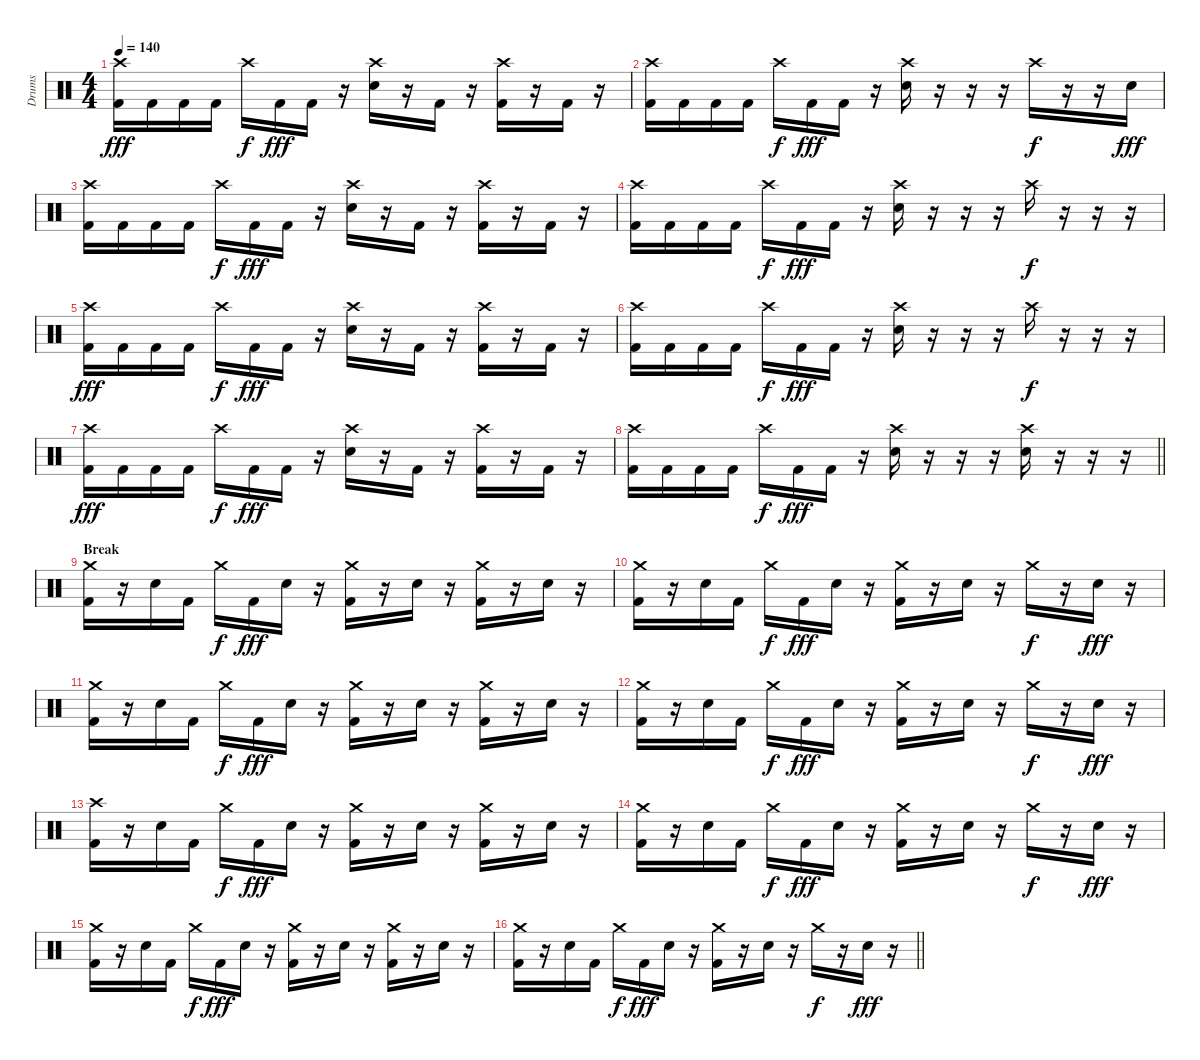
\track ("Drums" "Drums") {instrument percussion}
\staff {score}
\articulation defaults
\ts (4 4)
\tempo 140
\clef neutral
\ks c
("Crash high (hit)" "Kick (hit) 2").16{dy fff} "Kick (hit) 2".16 "Kick (hit) 2".16 "Kick (hit) 2".16 "Crash high (hit)".16{dy f} "Kick (hit) 2".16{dy fff} "Kick (hit) 2".16 r.16 ("Crash high (hit)" "Electric Snare (hit)").16 r.16 "Kick (hit) 2".16 r.16 ("Crash high (hit)" "Kick (hit) 2").16 r.16 "Kick (hit) 2".16 r.16 |
("Crash high (hit)" "Kick (hit) 2").16 "Kick (hit) 2".16 "Kick (hit) 2".16 "Kick (hit) 2".16 "Crash high (hit)".16{dy f} "Kick (hit) 2".16{dy fff} "Kick (hit) 2".16 r.16 ("Crash high (hit)" "Electric Snare (hit)").16 r.16 r.16 r.16 "Crash high (hit)".16{dy f} r.16 r.16 "Electric Snare (hit)".16{dy fff} |
("Crash high (hit)" "Kick (hit) 2").16 "Kick (hit) 2".16 "Kick (hit) 2".16 "Kick (hit) 2".16 "Crash high (hit)".16{dy f} "Kick (hit) 2".16{dy fff} "Kick (hit) 2".16 r.16 ("Crash high (hit)" "Electric Snare (hit)").16 r.16 "Kick (hit) 2".16 r.16 ("Crash high (hit)" "Kick (hit) 2").16 r.16 "Kick (hit) 2".16 r.16 |
("Crash high (hit)" "Kick (hit) 2").16 "Kick (hit) 2".16 "Kick (hit) 2".16 "Kick (hit) 2".16 "Crash high (hit)".16{dy f} "Kick (hit) 2".16{dy fff} "Kick (hit) 2".16 r.16 ("Crash high (hit)" "Electric Snare (hit)").16 r.16 r.16 r.16 "Crash high (hit)".16{dy f} r.16 r.16 r.16 |
("Crash high (hit)" "Kick (hit) 2").16{dy fff} "Kick (hit) 2".16 "Kick (hit) 2".16 "Kick (hit) 2".16 "Crash high (hit)".16{dy f} "Kick (hit) 2".16{dy fff} "Kick (hit) 2".16 r.16 ("Crash high (hit)" "Electric Snare (hit)").16 r.16 "Kick (hit) 2".16 r.16 ("Crash high (hit)" "Kick (hit) 2").16 r.16 "Kick (hit) 2".16 r.16 |
("Crash high (hit)" "Kick (hit) 2").16 "Kick (hit) 2".16 "Kick (hit) 2".16 "Kick (hit) 2".16 "Crash high (hit)".16{dy f} "Kick (hit) 2".16{dy fff} "Kick (hit) 2".16 r.16 ("Crash high (hit)" "Electric Snare (hit)").16 r.16 r.16 r.16 "Crash high (hit)".16{dy f} r.16 r.16 r.16 |
("Crash high (hit)" "Kick (hit) 2").16{dy fff} "Kick (hit) 2".16 "Kick (hit) 2".16 "Kick (hit) 2".16 "Crash high (hit)".16{dy f} "Kick (hit) 2".16{dy fff} "Kick (hit) 2".16 r.16 ("Crash high (hit)" "Electric Snare (hit)").16 r.16 "Kick (hit) 2".16 r.16 ("Crash high (hit)" "Kick (hit) 2").16 r.16 "Kick (hit) 2".16 r.16 |
\barLineRight lightlight
("Crash high (hit)" "Kick (hit) 2").16 "Kick (hit) 2".16 "Kick (hit) 2".16 "Kick (hit) 2".16 "Crash high (hit)".16{dy f} "Kick (hit) 2".16{dy fff} "Kick (hit) 2".16 r.16 ("Crash high (hit)" "Electric Snare (hit)").16 r.16 r.16 r.16 ("Crash high (hit)" "Electric Snare (hit)").16 r.16 r.16 r.16 |
\section ("" "Break")
("Crash medium (hit)" "Kick (hit) 2").16 r.16 "Electric Snare (hit)".16 "Kick (hit) 2".16 "Crash medium (hit)".16{dy f} "Kick (hit) 2".16{dy fff} "Electric Snare (hit)".16 r.16 ("Crash medium (hit)" "Kick (hit) 2").16 r.16 "Electric Snare (hit)".16 r.16 ("Crash medium (hit)" "Kick (hit) 2").16 r.16 "Electric Snare (hit)".16 r.16 |
("Crash medium (hit)" "Kick (hit) 2").16 r.16 "Electric Snare (hit)".16 "Kick (hit) 2".16 "Crash medium (hit)".16{dy f} "Kick (hit) 2".16{dy fff} "Electric Snare (hit)".16 r.16 ("Crash medium (hit)" "Kick (hit) 2").16 r.16 "Electric Snare (hit)".16 r.16 "Crash medium (hit)".16{dy f} r.16 "Electric Snare (hit)".16{dy fff} r.16 |
("Crash medium (hit)" "Kick (hit) 2").16 r.16 "Electric Snare (hit)".16 "Kick (hit) 2".16 "Crash medium (hit)".16{dy f} "Kick (hit) 2".16{dy fff} "Electric Snare (hit)".16 r.16 ("Crash medium (hit)" "Kick (hit) 2").16 r.16 "Electric Snare (hit)".16 r.16 ("Crash medium (hit)" "Kick (hit) 2").16 r.16 "Electric Snare (hit)".16 r.16 |
("Crash medium (hit)" "Kick (hit) 2").16 r.16 "Electric Snare (hit)".16 "Kick (hit) 2".16 "Crash medium (hit)".16{dy f} "Kick (hit) 2".16{dy fff} "Electric Snare (hit)".16 r.16 ("Crash medium (hit)" "Kick (hit) 2").16 r.16 "Electric Snare (hit)".16 r.16 "Crash medium (hit)".16{dy f} r.16 "Electric Snare (hit)".16{dy fff} r.16 |
("Crash high (hit)" "Kick (hit) 2").16 r.16 "Electric Snare (hit)".16 "Kick (hit) 2".16 "Crash medium (hit)".16{dy f} "Kick (hit) 2".16{dy fff} "Electric Snare (hit)".16 r.16 ("Crash medium (hit)" "Kick (hit) 2").16 r.16 "Electric Snare (hit)".16 r.16 ("Crash medium (hit)" "Kick (hit) 2").16 r.16 "Electric Snare (hit)".16 r.16 |
("Crash medium (hit)" "Kick (hit) 2").16 r.16 "Electric Snare (hit)".16 "Kick (hit) 2".16 "Crash medium (hit)".16{dy f} "Kick (hit) 2".16{dy fff} "Electric Snare (hit)".16 r.16 ("Crash medium (hit)" "Kick (hit) 2").16 r.16 "Electric Snare (hit)".16 r.16 "Crash medium (hit)".16{dy f} r.16 "Electric Snare (hit)".16{dy fff} r.16 |
("Crash medium (hit)" "Kick (hit) 2").16 r.16 "Electric Snare (hit)".16 "Kick (hit) 2".16 "Crash medium (hit)".16{dy f} "Kick (hit) 2".16{dy fff} "Electric Snare (hit)".16 r.16 ("Crash medium (hit)" "Kick (hit) 2").16 r.16 "Electric Snare (hit)".16 r.16 ("Crash medium (hit)" "Kick (hit) 2").16 r.16 "Electric Snare (hit)".16 r.16 |
\barLineRight lightlight
("Crash medium (hit)" "Kick (hit) 2").16 r.16 "Electric Snare (hit)".16 "Kick (hit) 2".16 "Crash medium (hit)".16{dy f} "Kick (hit) 2".16{dy fff} "Electric Snare (hit)".16 r.16 ("Crash medium (hit)" "Kick (hit) 2").16 r.16 "Electric Snare (hit)".16 r.16 "Crash medium (hit)".16{dy f} r.16 "Electric Snare (hit)".16{dy fff} r.16
